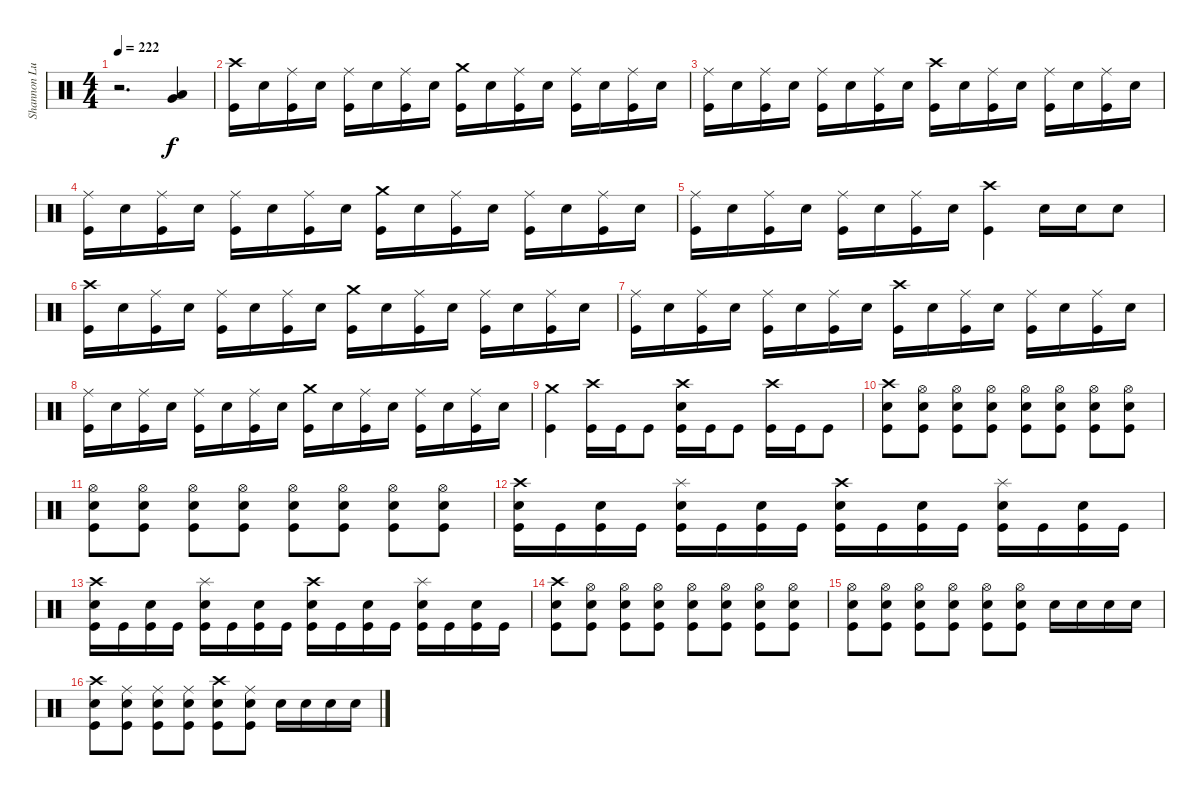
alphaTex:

\track ("Shannon Lucas" "Shannon Lu") {instrument percussion}
\staff {score}
\articulation defaults
\ts (4 4)
\tempo 222
\clef neutral
\ks c
r.2{d dy f} ("Very Low Tom (hit)" "Low Tom (hit)").4 |
("Crash high (hit)" "Kick (hit)").16 "Snare (hit) 2".16 ("Ride (middle)" "Kick (hit)").16 "Snare (hit) 2".16 ("Ride (middle)" "Kick (hit)").16 "Snare (hit) 2".16 ("Ride (middle)" "Kick (hit)").16 "Snare (hit) 2".16 ("Crash medium (hit)" "Kick (hit)").16 "Snare (hit) 2".16 ("Ride (middle)" "Kick (hit)").16 "Snare (hit) 2".16 ("Ride (middle)" "Kick (hit)").16 "Snare (hit) 2".16 ("Ride (middle)" "Kick (hit)").16 "Snare (hit) 2".16 |
("Ride (middle)" "Kick (hit)").16 "Snare (hit) 2".16 ("Ride (middle)" "Kick (hit)").16 "Snare (hit) 2".16 ("Ride (middle)" "Kick (hit)").16 "Snare (hit) 2".16 ("Ride (middle)" "Kick (hit)").16 "Snare (hit) 2".16 ("Crash high (hit)" "Kick (hit)").16 "Snare (hit) 2".16 ("Ride (middle)" "Kick (hit)").16 "Snare (hit) 2".16 ("Ride (middle)" "Kick (hit)").16 "Snare (hit) 2".16 ("Ride (middle)" "Kick (hit)").16 "Snare (hit) 2".16 |
("Ride (middle)" "Kick (hit)").16 "Snare (hit) 2".16 ("Ride (middle)" "Kick (hit)").16 "Snare (hit) 2".16 ("Ride (middle)" "Kick (hit)").16 "Snare (hit) 2".16 ("Ride (middle)" "Kick (hit)").16 "Snare (hit) 2".16 ("Crash medium (hit)" "Kick (hit)").16 "Snare (hit) 2".16 ("Ride (middle)" "Kick (hit)").16 "Snare (hit) 2".16 ("Ride (middle)" "Kick (hit)").16 "Snare (hit) 2".16 ("Ride (middle)" "Kick (hit)").16 "Snare (hit) 2".16 |
("Ride (middle)" "Kick (hit)").16 "Snare (hit) 2".16 ("Ride (middle)" "Kick (hit)").16 "Snare (hit) 2".16 ("Ride (middle)" "Kick (hit)").16 "Snare (hit) 2".16 ("Ride (middle)" "Kick (hit)").16 "Snare (hit) 2".16 ("Crash high (hit)" "Kick (hit)").4 "Snare (hit) 2".16 "Snare (hit) 2".16 "Snare (hit) 2".8 |
("Crash high (hit)" "Kick (hit)").16 "Snare (hit) 2".16 ("Ride (middle)" "Kick (hit)").16 "Snare (hit) 2".16 ("Ride (middle)" "Kick (hit)").16 "Snare (hit) 2".16 ("Ride (middle)" "Kick (hit)").16 "Snare (hit) 2".16 ("Crash medium (hit)" "Kick (hit)").16 "Snare (hit) 2".16 ("Ride (middle)" "Kick (hit)").16 "Snare (hit) 2".16 ("Ride (middle)" "Kick (hit)").16 "Snare (hit) 2".16 ("Ride (middle)" "Kick (hit)").16 "Snare (hit) 2".16 |
("Ride (middle)" "Kick (hit)").16 "Snare (hit) 2".16 ("Ride (middle)" "Kick (hit)").16 "Snare (hit) 2".16 ("Ride (middle)" "Kick (hit)").16 "Snare (hit) 2".16 ("Ride (middle)" "Kick (hit)").16 "Snare (hit) 2".16 ("Crash high (hit)" "Kick (hit)").16 "Snare (hit) 2".16 ("Ride (middle)" "Kick (hit)").16 "Snare (hit) 2".16 ("Ride (middle)" "Kick (hit)").16 "Snare (hit) 2".16 ("Ride (middle)" "Kick (hit)").16 "Snare (hit) 2".16 |
("Ride (middle)" "Kick (hit)").16 "Snare (hit) 2".16 ("Ride (middle)" "Kick (hit)").16 "Snare (hit) 2".16 ("Ride (middle)" "Kick (hit)").16 "Snare (hit) 2".16 ("Ride (middle)" "Kick (hit)").16 "Snare (hit) 2".16 ("Crash medium (hit)" "Kick (hit)").16 "Snare (hit) 2".16 ("Ride (middle)" "Kick (hit)").16 "Snare (hit) 2".16 ("Ride (middle)" "Kick (hit)").16 "Snare (hit) 2".16 ("Ride (middle)" "Kick (hit)").16 "Snare (hit) 2".16 |
("Crash medium (hit)" "Kick (hit)").4 ("Crash high (hit)" "Kick (hit)").16 "Kick (hit)".16 "Kick (hit)".8 ("Crash high (hit)" "Snare (hit) 2" "Kick (hit)").16 "Kick (hit)".16 "Kick (hit)".8 ("Crash high (hit)" "Kick (hit)").16 "Kick (hit)".16 "Kick (hit)".8 |
("Crash high (hit)" "Snare (hit) 2" "Kick (hit)").8 ("Hi-Hat (open)" "Snare (hit) 2" "Kick (hit)").8 ("Hi-Hat (open)" "Snare (hit) 2" "Kick (hit)").8 ("Hi-Hat (open)" "Snare (hit) 2" "Kick (hit)").8 ("Hi-Hat (open)" "Snare (hit) 2" "Kick (hit)").8 ("Hi-Hat (open)" "Snare (hit) 2" "Kick (hit)").8 ("Hi-Hat (open)" "Snare (hit) 2" "Kick (hit)").8 ("Hi-Hat (open)" "Snare (hit) 2" "Kick (hit)").8 |
("Hi-Hat (open)" "Snare (hit) 2" "Kick (hit)").8 ("Hi-Hat (open)" "Snare (hit) 2" "Kick (hit)").8 ("Hi-Hat (open)" "Snare (hit) 2" "Kick (hit)").8 ("Hi-Hat (open)" "Snare (hit) 2" "Kick (hit)").8 ("Hi-Hat (open)" "Snare (hit) 2" "Kick (hit)").8 ("Hi-Hat (open)" "Snare (hit) 2" "Kick (hit)").8 ("Hi-Hat (open)" "Snare (hit) 2" "Kick (hit)").8 ("Hi-Hat (open)" "Snare (hit) 2" "Kick (hit)").8 |
("Crash high (hit)" "Snare (hit) 2" "Kick (hit)").16 "Kick (hit)".16 ("Snare (hit) 2" "Kick (hit)").16 "Kick (hit)".16 ("Splash (hit)" "Snare (hit) 2" "Kick (hit)").16 "Kick (hit)".16 ("Snare (hit) 2" "Kick (hit)").16 "Kick (hit)".16 ("Crash high (hit)" "Snare (hit) 2" "Kick (hit)").16 "Kick (hit)".16 ("Snare (hit) 2" "Kick (hit)").16 "Kick (hit)".16 ("Splash (hit)" "Snare (hit) 2" "Kick (hit)").16 "Kick (hit)".16 ("Snare (hit) 2" "Kick (hit)").16 "Kick (hit)".16 |
("Crash high (hit)" "Snare (hit) 2" "Kick (hit)").16 "Kick (hit)".16 ("Snare (hit) 2" "Kick (hit)").16 "Kick (hit)".16 ("Splash (hit)" "Snare (hit) 2" "Kick (hit)").16 "Kick (hit)".16 ("Snare (hit) 2" "Kick (hit)").16 "Kick (hit)".16 ("Crash high (hit)" "Snare (hit) 2" "Kick (hit)").16 "Kick (hit)".16 ("Snare (hit) 2" "Kick (hit)").16 "Kick (hit)".16 ("Splash (hit)" "Snare (hit) 2" "Kick (hit)").16 "Kick (hit)".16 ("Snare (hit) 2" "Kick (hit)").16 "Kick (hit)".16 |
("Crash high (hit)" "Snare (hit) 2" "Kick (hit)").8 ("Hi-Hat (open)" "Snare (hit) 2" "Kick (hit)").8 ("Hi-Hat (open)" "Snare (hit) 2" "Kick (hit)").8 ("Hi-Hat (open)" "Snare (hit) 2" "Kick (hit)").8 ("Hi-Hat (open)" "Snare (hit) 2" "Kick (hit)").8 ("Hi-Hat (open)" "Snare (hit) 2" "Kick (hit)").8 ("Hi-Hat (open)" "Snare (hit) 2" "Kick (hit)").8 ("Hi-Hat (open)" "Snare (hit) 2" "Kick (hit)").8 |
("Hi-Hat (open)" "Snare (hit) 2" "Kick (hit)").8 ("Hi-Hat (open)" "Snare (hit) 2" "Kick (hit)").8 ("Hi-Hat (open)" "Snare (hit) 2" "Kick (hit)").8 ("Hi-Hat (open)" "Snare (hit) 2" "Kick (hit)").8 ("Hi-Hat (open)" "Snare (hit) 2" "Kick (hit)").8 ("Hi-Hat (open)" "Snare (hit) 2" "Kick (hit)").8 "Snare (hit) 2".16 "Snare (hit) 2".16 "Snare (hit) 2".16 "Snare (hit) 2".16 |
("Crash high (hit)" "Snare (hit) 2" "Kick (hit)").8 ("Ride (middle)" "Snare (hit) 2" "Kick (hit)").8 ("Ride (middle)" "Snare (hit) 2" "Kick (hit)").8 ("Ride (middle)" "Snare (hit) 2" "Kick (hit)").8 ("Crash high (hit)" "Snare (hit) 2" "Kick (hit)").8 ("Ride (middle)" "Snare (hit) 2" "Kick (hit)").8 "Snare (hit) 2".16 "Snare (hit) 2".16 "Snare (hit) 2".16 "Snare (hit) 2".16
